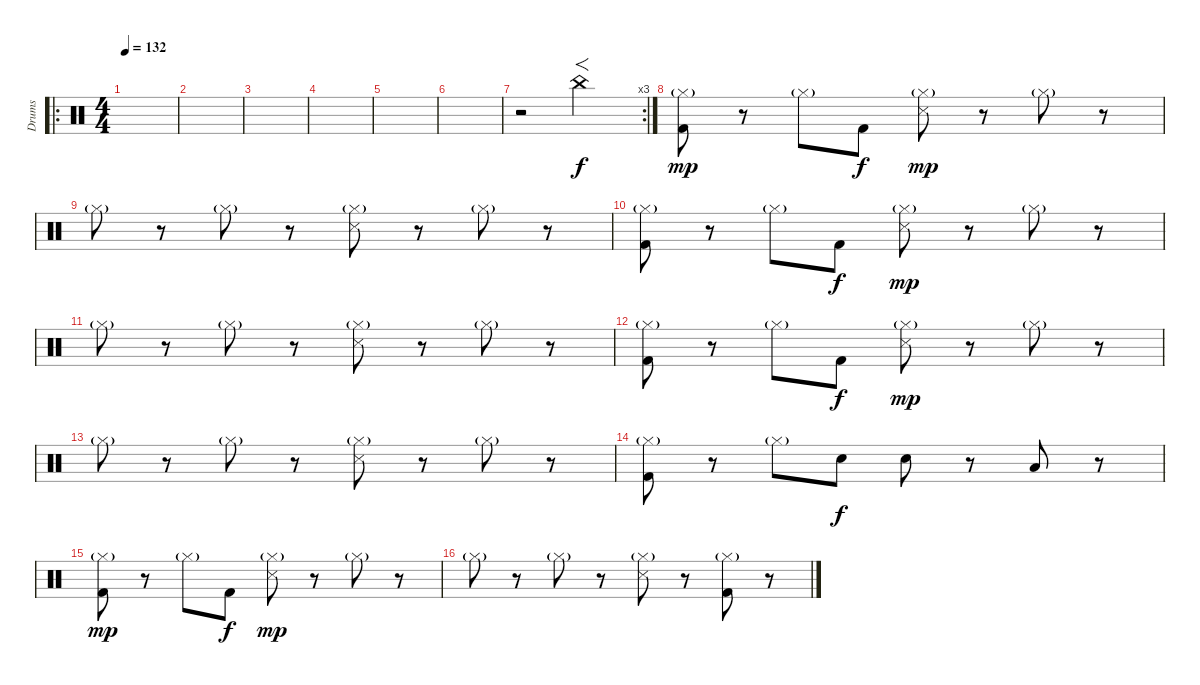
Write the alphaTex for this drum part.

\track ("Drums" "Drums") {instrument percussion}
\staff {score}
\articulation defaults
\ro
\ts (4 4)
\tempo 132
\clef neutral
\ks c
|
|
|
|
|
|
\rc 3
r.2 "China (hit)".2{f} |
("Kick (hit) 2" "Hi-Hat (closed)"{g}).8{dy mp} r.8 "Hi-Hat (closed)"{g}.8 "Kick (hit) 2".8{dy f} ("Snare (side stick) 3" "Hi-Hat (closed)"{g}).8{dy mp} r.8 "Hi-Hat (closed)"{g}.8 r.8 |
"Hi-Hat (closed)"{g}.8 r.8 "Hi-Hat (closed)"{g}.8 r.8 ("Snare (side stick) 3" "Hi-Hat (closed)"{g}).8 r.8 "Hi-Hat (closed)"{g}.8 r.8 |
("Kick (hit) 2" "Hi-Hat (closed)"{g}).8 r.8 "Hi-Hat (closed)"{g}.8 "Kick (hit) 2".8{dy f} ("Snare (side stick) 3" "Hi-Hat (closed)"{g}).8{dy mp} r.8 "Hi-Hat (closed)"{g}.8 r.8 |
"Hi-Hat (closed)"{g}.8 r.8 "Hi-Hat (closed)"{g}.8 r.8 ("Snare (side stick) 3" "Hi-Hat (closed)"{g}).8 r.8 "Hi-Hat (closed)"{g}.8 r.8 |
("Kick (hit) 2" "Hi-Hat (closed)"{g}).8 r.8 "Hi-Hat (closed)"{g}.8 "Kick (hit) 2".8{dy f} ("Snare (side stick) 3" "Hi-Hat (closed)"{g}).8{dy mp} r.8 "Hi-Hat (closed)"{g}.8 r.8 |
"Hi-Hat (closed)"{g}.8 r.8 "Hi-Hat (closed)"{g}.8 r.8 ("Snare (side stick) 3" "Hi-Hat (closed)"{g}).8 r.8 "Hi-Hat (closed)"{g}.8 r.8 |
("Kick (hit) 2" "Hi-Hat (closed)"{g}).8 r.8 "Hi-Hat (closed)"{g}.8 "Snare (hit) 2".8{dy f} "Snare (hit) 2".8 r.8 "Low Tom (hit)".8 r.8 |
("Kick (hit) 2" "Hi-Hat (closed)"{g}).8{dy mp} r.8 "Hi-Hat (closed)"{g}.8 "Kick (hit) 2".8{dy f} ("Snare (side stick) 3" "Hi-Hat (closed)"{g}).8{dy mp} r.8 "Hi-Hat (closed)"{g}.8 r.8 |
"Hi-Hat (closed)"{g}.8 r.8 "Hi-Hat (closed)"{g}.8 r.8 ("Snare (side stick) 3" "Hi-Hat (closed)"{g}).8 r.8 ("Kick (hit) 2" "Hi-Hat (closed)"{g}).8 r.8
